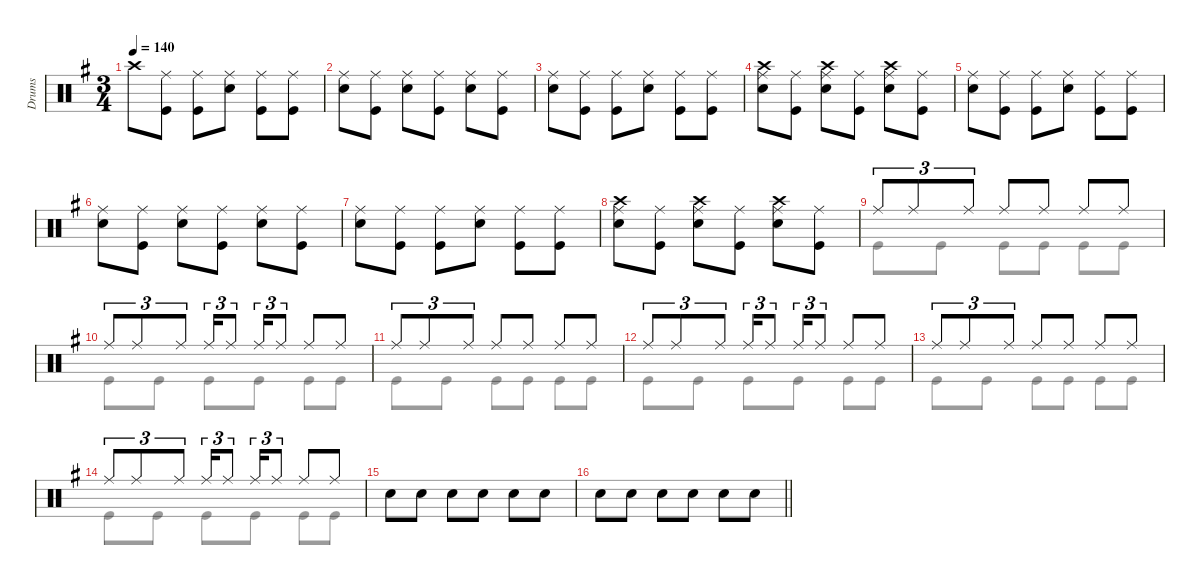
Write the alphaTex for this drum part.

\defaultSystemsLayout 8
\hideDynamics
\bracketExtendMode groupsimilarinstruments
\firstSystemTrackNameMode fullname
\otherSystemsTrackNameOrientation horizontal
\track ("Drums" "drm.") {defaultSystemsLayout 4 instrument percussion}
\staff {score}
\articulation defaults
\voice
\ts (3 4)
\tempo 140
\clef neutral
\ks g "Crash high (hit)"{acc forcenatural}.8{dy fff beam Down}
("Ride (middle)"{acc forcenatural} "Kick (hit)"{acc forcenatural}).8{beam Down} ("Ride (middle)"{acc forcenatural} "Kick (hit)"{acc forcenatural}).8{beam Down} ("Ride (middle)"{acc forcenatural} "Snare (hit) 2"{acc forcenatural}).8{beam Down} ("Ride (middle)"{acc forcenatural} "Kick (hit)"{acc forcenatural}).8{beam Down} ("Ride (middle)"{acc forcenatural} "Kick (hit)"{acc forcenatural}).8{beam Down} |
("Ride (middle)"{acc forcenatural} "Snare (hit) 2"{acc forcenatural}).8{beam Down} ("Ride (middle)"{acc forcenatural} "Kick (hit)"{acc forcenatural}).8{beam Down} ("Ride (middle)"{acc forcenatural} "Snare (hit) 2"{acc forcenatural}).8{beam Down} ("Ride (middle)"{acc forcenatural} "Kick (hit)"{acc forcenatural}).8{beam Down} ("Ride (middle)"{acc forcenatural} "Snare (hit) 2"{acc forcenatural}).8{beam Down} ("Ride (middle)"{acc forcenatural} "Kick (hit)"{acc forcenatural}).8{beam Down} |
("Ride (middle)"{acc forcenatural} "Snare (hit) 2"{acc forcenatural}).8{beam Down} ("Ride (middle)"{acc forcenatural} "Kick (hit)"{acc forcenatural}).8{beam Down} ("Ride (middle)"{acc forcenatural} "Kick (hit)"{acc forcenatural}).8{beam Down} ("Ride (middle)"{acc forcenatural} "Snare (hit) 2"{acc forcenatural}).8{beam Down} ("Ride (middle)"{acc forcenatural} "Kick (hit)"{acc forcenatural}).8{beam Down} ("Ride (middle)"{acc forcenatural} "Kick (hit)"{acc forcenatural}).8{beam Down} |
("Crash high (hit)"{acc forcenatural} "Ride (middle)"{acc forcenatural} "Snare (hit) 2"{acc forcenatural}).8{beam Down} ("Ride (middle)"{acc forcenatural} "Kick (hit)"{acc forcenatural}).8{beam Down} ("Crash high (hit)"{acc forcenatural} "Ride (middle)"{acc forcenatural} "Snare (hit) 2"{acc forcenatural}).8{beam Down} ("Ride (middle)"{acc forcenatural} "Kick (hit)"{acc forcenatural}).8{beam Down} ("Crash high (hit)"{acc forcenatural} "Ride (middle)"{acc forcenatural} "Snare (hit) 2"{acc forcenatural}).8{beam Down} ("Ride (middle)"{acc forcenatural} "Kick (hit)"{acc forcenatural}).8{beam Down} |
("Ride (middle)"{acc forcenatural} "Snare (hit) 2"{acc forcenatural}).8{beam Down} ("Ride (middle)"{acc forcenatural} "Kick (hit)"{acc forcenatural}).8{beam Down} ("Ride (middle)"{acc forcenatural} "Kick (hit)"{acc forcenatural}).8{beam Down} ("Ride (middle)"{acc forcenatural} "Snare (hit) 2"{acc forcenatural}).8{beam Down} ("Ride (middle)"{acc forcenatural} "Kick (hit)"{acc forcenatural}).8{beam Down} ("Ride (middle)"{acc forcenatural} "Kick (hit)"{acc forcenatural}).8{beam Down} |
("Ride (middle)"{acc forcenatural} "Snare (hit) 2"{acc forcenatural}).8{beam Down} ("Ride (middle)"{acc forcenatural} "Kick (hit)"{acc forcenatural}).8{beam Down} ("Ride (middle)"{acc forcenatural} "Snare (hit) 2"{acc forcenatural}).8{beam Down} ("Ride (middle)"{acc forcenatural} "Kick (hit)"{acc forcenatural}).8{beam Down} ("Ride (middle)"{acc forcenatural} "Snare (hit) 2"{acc forcenatural}).8{beam Down} ("Ride (middle)"{acc forcenatural} "Kick (hit)"{acc forcenatural}).8{beam Down} |
("Ride (middle)"{acc forcenatural} "Snare (hit) 2"{acc forcenatural}).8{beam Down} ("Ride (middle)"{acc forcenatural} "Kick (hit)"{acc forcenatural}).8{beam Down} ("Ride (middle)"{acc forcenatural} "Kick (hit)"{acc forcenatural}).8{beam Down} ("Ride (middle)"{acc forcenatural} "Snare (hit) 2"{acc forcenatural}).8{beam Down} ("Ride (middle)"{acc forcenatural} "Kick (hit)"{acc forcenatural}).8{beam Down} ("Ride (middle)"{acc forcenatural} "Kick (hit)"{acc forcenatural}).8{beam Down} |
("Crash high (hit)"{acc forcenatural} "Ride (middle)"{acc forcenatural} "Snare (hit) 2"{acc forcenatural}).8{beam Down} ("Ride (middle)"{acc forcenatural} "Kick (hit)"{acc forcenatural}).8{beam Down} ("Crash high (hit)"{acc forcenatural} "Ride (middle)"{acc forcenatural} "Snare (hit) 2"{acc forcenatural}).8{beam Down} ("Ride (middle)"{acc forcenatural} "Kick (hit)"{acc forcenatural}).8{beam Down} ("Crash high (hit)"{acc forcenatural} "Ride (middle)"{acc forcenatural} "Snare (hit) 2"{acc forcenatural}).8{beam Down} ("Ride (middle)"{acc forcenatural} "Kick (hit)"{acc forcenatural}).8{beam Down} |
"Ride (middle)"{acc forcenatural}.8{tu (3 2) beam Up} "Ride (middle)"{acc forcenatural}.8{tu (3 2) beam Up} "Ride (middle)"{acc forcenatural}.8{tu (3 2) beam Up} "Ride (middle)"{acc forcenatural}.8{beam Up} "Ride (middle)"{acc forcenatural}.8{beam Up} "Ride (middle)"{acc forcenatural}.8{beam Up} "Ride (middle)"{acc forcenatural}.8{beam Up} |
"Ride (middle)"{acc forcenatural}.8{tu (3 2) dy ff beam Up} "Ride (middle)"{acc forcenatural}.8{tu (3 2) beam Up} "Ride (middle)"{acc forcenatural}.8{tu (3 2) beam Up} "Ride (middle)"{acc forcenatural}.16{tu (3 2) beam Up} "Ride (middle)"{acc forcenatural}.8{tu (3 2) beam Up} "Ride (middle)"{acc forcenatural}.16{tu (3 2) beam Up} "Ride (middle)"{acc forcenatural}.8{tu (3 2) dy f beam Up} "Ride (middle)"{acc forcenatural}.8{dy ff beam Up} "Ride (middle)"{acc forcenatural}.8{beam Up} |
"Ride (middle)"{acc forcenatural}.8{tu (3 2) beam Up} "Ride (middle)"{acc forcenatural}.8{tu (3 2) beam Up} "Ride (middle)"{acc forcenatural}.8{tu (3 2) beam Up} "Ride (middle)"{acc forcenatural}.8{beam Up} "Ride (middle)"{acc forcenatural}.8{beam Up} "Ride (middle)"{acc forcenatural}.8{beam Up} "Ride (middle)"{acc forcenatural}.8{beam Up} |
"Ride (middle)"{acc forcenatural}.8{tu (3 2) beam Up} "Ride (middle)"{acc forcenatural}.8{tu (3 2) beam Up} "Ride (middle)"{acc forcenatural}.8{tu (3 2) beam Up} "Ride (middle)"{acc forcenatural}.16{tu (3 2) beam Up} "Ride (middle)"{acc forcenatural}.8{tu (3 2) beam Up} "Ride (middle)"{acc forcenatural}.16{tu (3 2) beam Up} "Ride (middle)"{acc forcenatural}.8{tu (3 2) dy f beam Up} "Ride (middle)"{acc forcenatural}.8{dy ff beam Up} "Ride (middle)"{acc forcenatural}.8{beam Up} |
"Ride (middle)"{acc forcenatural}.8{tu (3 2) beam Up} "Ride (middle)"{acc forcenatural}.8{tu (3 2) beam Up} "Ride (middle)"{acc forcenatural}.8{tu (3 2) beam Up} "Ride (middle)"{acc forcenatural}.8{beam Up} "Ride (middle)"{acc forcenatural}.8{beam Up} "Ride (middle)"{acc forcenatural}.8{beam Up} "Ride (middle)"{acc forcenatural}.8{beam Up} |
"Ride (middle)"{acc forcenatural}.8{tu (3 2) beam Up} "Ride (middle)"{acc forcenatural}.8{tu (3 2) beam Up} "Ride (middle)"{acc forcenatural}.8{tu (3 2) beam Up} "Ride (middle)"{acc forcenatural}.16{tu (3 2) beam Up} "Ride (middle)"{acc forcenatural}.8{tu (3 2) beam Up} "Ride (middle)"{acc forcenatural}.16{tu (3 2) beam Up} "Ride (middle)"{acc forcenatural}.8{tu (3 2) dy f beam Up} "Ride (middle)"{acc forcenatural}.8{dy ff beam Up} "Ride (middle)"{acc forcenatural}.8{beam Up} |
"Snare (hit) 2"{acc forcenatural}.8{dy mp beam Down} "Snare (hit) 2"{acc forcenatural}.8{beam Down} "Snare (hit) 2"{acc forcenatural}.8{beam Down} "Snare (hit) 2"{acc forcenatural}.8{dy mf beam Down} "Snare (hit) 2"{acc forcenatural}.8{beam Down} "Snare (hit) 2"{acc forcenatural}.8{beam Down} |
\barLineRight lightlight "Snare (hit) 2"{acc forcenatural}.8{dy f beam Down} "Snare (hit) 2"{acc forcenatural}.8{beam Down} "Snare (hit) 2"{acc forcenatural}.8{beam Down} "Snare (hit) 2"{acc forcenatural}.8{dy ff beam Down} "Snare (hit) 2"{acc forcenatural}.8{beam Down} "Snare (hit) 2"{acc forcenatural}.8{beam Down}
\voice
\clef neutral
\ottava regular
\simile none
\ks g
|
|
|
|
|
|
|
|
"Kick (hit)"{acc forcenatural}.8{dy fff beam Down} "Kick (hit)"{acc forcenatural}.8{beam Down} "Kick (hit)"{acc forcenatural}.8{beam Down} "Kick (hit)"{acc forcenatural}.8{beam Down} "Kick (hit)"{acc forcenatural}.8{beam Down} "Kick (hit)"{acc forcenatural}.8{beam Down} |
"Kick (hit)"{acc forcenatural}.8{dy ff beam Down} "Kick (hit)"{acc forcenatural}.8{beam Down} "Kick (hit)"{acc forcenatural}.8{beam Down} "Kick (hit)"{acc forcenatural}.8{beam Down} "Kick (hit)"{acc forcenatural}.8{beam Down} "Kick (hit)"{acc forcenatural}.8{beam Down} |
"Kick (hit)"{acc forcenatural}.8{beam Down} "Kick (hit)"{acc forcenatural}.8{beam Down} "Kick (hit)"{acc forcenatural}.8{beam Down} "Kick (hit)"{acc forcenatural}.8{beam Down} "Kick (hit)"{acc forcenatural}.8{beam Down} "Kick (hit)"{acc forcenatural}.8{beam Down} |
"Kick (hit)"{acc forcenatural}.8{beam Down} "Kick (hit)"{acc forcenatural}.8{beam Down} "Kick (hit)"{acc forcenatural}.8{beam Down} "Kick (hit)"{acc forcenatural}.8{beam Down} "Kick (hit)"{acc forcenatural}.8{beam Down} "Kick (hit)"{acc forcenatural}.8{beam Down} |
"Kick (hit)"{acc forcenatural}.8{beam Down} "Kick (hit)"{acc forcenatural}.8{beam Down} "Kick (hit)"{acc forcenatural}.8{beam Down} "Kick (hit)"{acc forcenatural}.8{beam Down} "Kick (hit)"{acc forcenatural}.8{beam Down} "Kick (hit)"{acc forcenatural}.8{beam Down} |
"Kick (hit)"{acc forcenatural}.8{beam Down} "Kick (hit)"{acc forcenatural}.8{beam Down} "Kick (hit)"{acc forcenatural}.8{beam Down} "Kick (hit)"{acc forcenatural}.8{beam Down} "Kick (hit)"{acc forcenatural}.8{beam Down} "Kick (hit)"{acc forcenatural}.8{beam Down} |
|
\barLineRight lightlight
